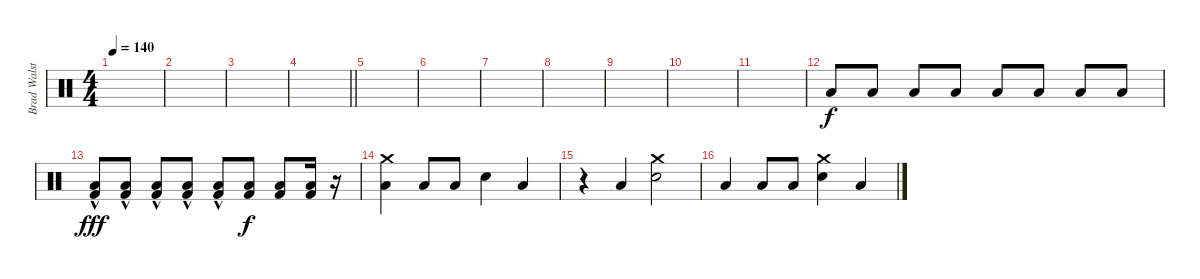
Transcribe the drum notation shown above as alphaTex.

\track ("Brad Walst" "Brad Walst") {instrument percussion}
\staff {score}
\articulation defaults
\ts (4 4)
\tempo 140
\clef neutral
\ks c
|
|
|
\barLineRight lightlight
|
|
|
|
|
|
|
|
"Low Floor Tom (hit)".8 "Low Floor Tom (hit)".8 "Low Floor Tom (hit)".8 "Low Floor Tom (hit)".8 "Low Floor Tom (hit)".8 "Low Floor Tom (hit)".8 "Low Floor Tom (hit)".8 "Low Floor Tom (hit)".8 |
("Low Floor Tom (hit)"{hac} "Kick (hit) 2").8{dy fff} ("Low Floor Tom (hit)"{hac} "Kick (hit) 2").8 ("Low Floor Tom (hit)"{hac} "Kick (hit) 2").8 ("Low Floor Tom (hit)"{hac} "Kick (hit) 2").8 ("Low Floor Tom (hit)"{hac} "Kick (hit) 2").8 ("Low Floor Tom (hit)" "Kick (hit) 2").8{dy f} ("Low Floor Tom (hit)" "Kick (hit) 2").8 ("Low Floor Tom (hit)" "Kick (hit) 2").16 r.16 |
("Low Floor Tom (hit)" "Crash medium (hit)").4 "Low Floor Tom (hit)".8 "Low Floor Tom (hit)".8 "Electric Snare (hit)".4 "Low Floor Tom (hit)".4 |
r.4 "Low Floor Tom (hit)".4 ("Crash medium (hit)" "Electric Snare (hit)").2 |
"Low Floor Tom (hit)".4 "Low Floor Tom (hit)".8 "Low Floor Tom (hit)".8 ("Crash medium (hit)" "Electric Snare (hit)").4 "Low Floor Tom (hit)".4
